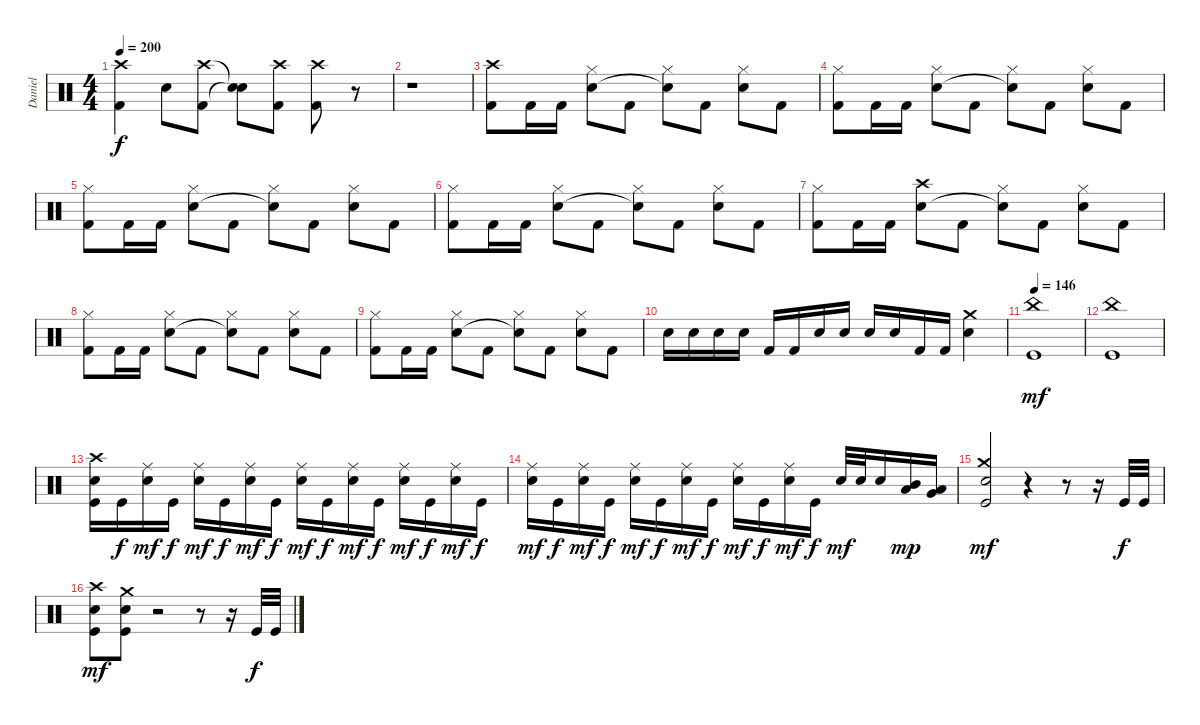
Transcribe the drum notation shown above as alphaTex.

\track ("Daniel" "Daniel") {instrument percussion}
\staff {score}
\articulation defaults
\ts (4 4)
\tempo 200
\clef neutral
\ks c
("Crash high (hit)" "Kick (hit) 2").4{dy f} "Electric Snare (hit)".8 ("Crash high (hit)" "Kick (hit) 2").8 ("Snare (hit)"{t} "Snare (hit)"{t}).8 ("Crash high (hit)" "Kick (hit) 2").8 ("Crash high (hit)" "Kick (hit) 2").8 r.8 |
r.1 |
("Crash high (hit)" "Kick (hit) 2").8 "Kick (hit) 2".16 "Kick (hit) 2".16 ("Hi-Hat (closed)" "Electric Snare (hit)").8 "Kick (hit) 2".8 ("Hi-Hat (closed)" "Snare (hit)"{t}).8 "Kick (hit) 2".8 ("Hi-Hat (closed)" "Electric Snare (hit)").8 "Kick (hit) 2".8 |
("Hi-Hat (closed)" "Kick (hit) 2").8 "Kick (hit) 2".16 "Kick (hit) 2".16 ("Hi-Hat (closed)" "Electric Snare (hit)").8 "Kick (hit) 2".8 ("Hi-Hat (closed)" "Snare (hit)"{t}).8 "Kick (hit) 2".8 ("Hi-Hat (closed)" "Electric Snare (hit)").8 "Kick (hit) 2".8 |
("Hi-Hat (closed)" "Kick (hit) 2").8 "Kick (hit) 2".16 "Kick (hit) 2".16 ("Hi-Hat (closed)" "Electric Snare (hit)").8 "Kick (hit) 2".8 ("Hi-Hat (closed)" "Snare (hit)"{t}).8 "Kick (hit) 2".8 ("Hi-Hat (closed)" "Electric Snare (hit)").8 "Kick (hit) 2".8 |
("Hi-Hat (closed)" "Kick (hit) 2").8 "Kick (hit) 2".16 "Kick (hit) 2".16 ("Hi-Hat (closed)" "Electric Snare (hit)").8 "Kick (hit) 2".8 ("Hi-Hat (closed)" "Snare (hit)"{t}).8 "Kick (hit) 2".8 ("Hi-Hat (closed)" "Electric Snare (hit)").8 "Kick (hit) 2".8 |
("Hi-Hat (closed)" "Kick (hit) 2").8 "Kick (hit) 2".16 "Kick (hit) 2".16 ("Crash high (hit)" "Electric Snare (hit)").8 "Kick (hit) 2".8 ("Hi-Hat (closed)" "Snare (hit)"{t}).8 "Kick (hit) 2".8 ("Hi-Hat (closed)" "Electric Snare (hit)").8 "Kick (hit) 2".8 |
("Hi-Hat (closed)" "Kick (hit) 2").8 "Kick (hit) 2".16 "Kick (hit) 2".16 ("Hi-Hat (closed)" "Electric Snare (hit)").8 "Kick (hit) 2".8 ("Hi-Hat (closed)" "Snare (hit)"{t}).8 "Kick (hit) 2".8 ("Hi-Hat (closed)" "Electric Snare (hit)").8 "Kick (hit) 2".8 |
("Hi-Hat (closed)" "Kick (hit) 2").8 "Kick (hit) 2".16 "Kick (hit) 2".16 ("Hi-Hat (closed)" "Electric Snare (hit)").8 "Kick (hit) 2".8 ("Hi-Hat (closed)" "Snare (hit)"{t}).8 "Kick (hit) 2".8 ("Hi-Hat (closed)" "Electric Snare (hit)").8 "Kick (hit) 2".8 |
"Snare (hit) 2".16 "Snare (hit) 2".16 "Snare (hit) 2".16 "Snare (hit) 2".16 "Kick (hit) 2".16 "Kick (hit) 2".16 "Snare (hit) 2".16 "Snare (hit) 2".16 "Snare (hit) 2".16 "Snare (hit) 2".16 "Kick (hit) 2".16 "Kick (hit) 2".16 ("Crash medium (hit)" "Snare (hit) 2").4 |
\tempo 146
("Kick (hit)" "China (hit)").1{dy mf} |
("Kick (hit)" "China (hit)").1 |
("Kick (hit)" "Electric Snare (hit)" "Crash high (hit)").16 "Kick (hit)".16{dy f} ("Electric Snare (hit)" "Ride (middle)").16{dy mf} "Kick (hit)".16{dy f} ("Electric Snare (hit)" "Ride (middle)").16{dy mf} "Kick (hit)".16{dy f} ("Electric Snare (hit)" "Ride (middle)").16{dy mf} "Kick (hit)".16{dy f} ("Electric Snare (hit)" "Ride (middle)").16{dy mf} "Kick (hit)".16{dy f} ("Electric Snare (hit)" "Ride (middle)").16{dy mf} "Kick (hit)".16{dy f} ("Electric Snare (hit)" "Ride (middle)").16{dy mf} "Kick (hit)".16{dy f} ("Electric Snare (hit)" "Ride (middle)").16{dy mf} "Kick (hit)".16{dy f} |
("Electric Snare (hit)" "Ride (middle)").16{dy mf} "Kick (hit)".16{dy f} ("Electric Snare (hit)" "Ride (middle)").16{dy mf} "Kick (hit)".16{dy f} ("Electric Snare (hit)" "Ride (middle)").16{dy mf} "Kick (hit)".16{dy f} ("Electric Snare (hit)" "Ride (middle)").16{dy mf} "Kick (hit)".16{dy f} ("Electric Snare (hit)" "Ride (middle)").16{dy mf} "Kick (hit)".16{dy f} ("Electric Snare (hit)" "Ride (middle)").16{dy mf} "Kick (hit)".16{dy f} "Electric Snare (hit)".32{dy mf} "Electric Snare (hit)".32 "Electric Snare (hit)".16 ("Low Tom (hit)" "Mid Tom (hit)").16{dy mp} ("Very Low Tom (hit)" "Low Tom (hit)").16 |
("Kick (hit)" "Electric Snare (hit)" "Crash medium (hit)").2{dy mf} r.4 r.8 r.16 "Kick (hit)".32{dy f} "Kick (hit)".32 |
("Kick (hit)" "Electric Snare (hit)" "Crash high (hit)").8{dy mf} ("Kick (hit)" "Electric Snare (hit)" "Crash medium (hit)").8 r.2 r.8 r.16 "Kick (hit)".32{dy f} "Kick (hit)".32
